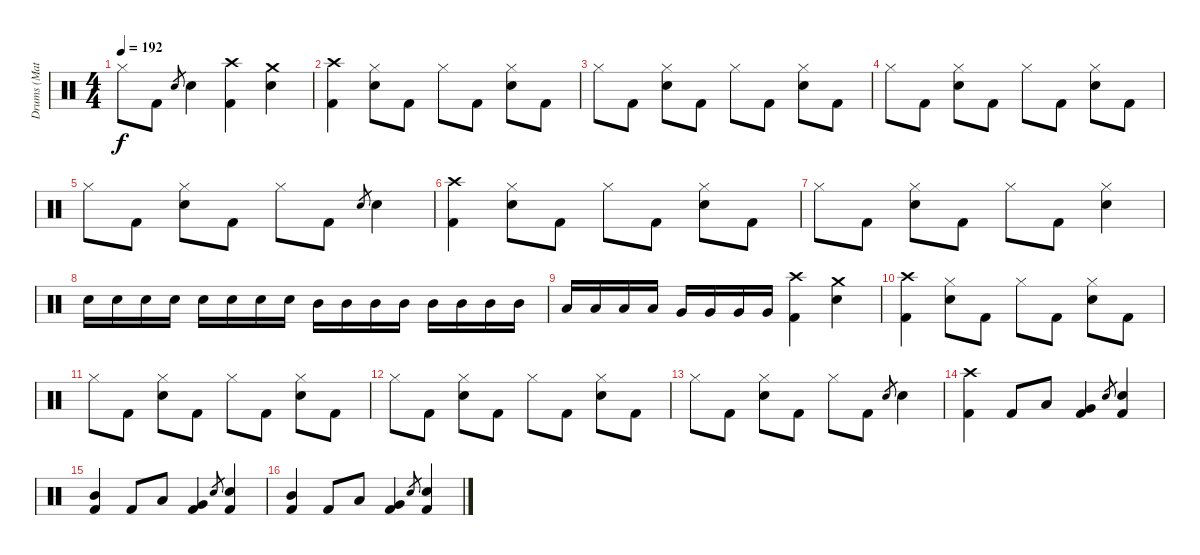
\track ("Drums (Matt)" "Drums (Mat") {instrument percussion}
\staff {score}
\articulation defaults
\ts (4 4)
\tempo 192
\clef neutral
\ks c "Hi-Hat (closed)".8{dy f} "Kick (hit) 2".8 "Snare (hit) 2".8{gr} "Snare (hit) 2".4
("Crash high (hit)" "Kick (hit) 2").4 ("Crash medium (hit)" "Snare (hit) 2").4 |
("Crash high (hit)" "Kick (hit) 2").4 ("Hi-Hat (closed)" "Snare (hit) 2").8 "Kick (hit) 2".8 "Hi-Hat (closed)".8 "Kick (hit) 2".8 ("Hi-Hat (closed)" "Snare (hit) 2").8 "Kick (hit) 2".8 |
"Hi-Hat (closed)".8 "Kick (hit) 2".8 ("Hi-Hat (closed)" "Snare (hit) 2").8 "Kick (hit) 2".8 "Hi-Hat (closed)".8 "Kick (hit) 2".8 ("Hi-Hat (closed)" "Snare (hit) 2").8 "Kick (hit) 2".8 |
"Hi-Hat (closed)".8 "Kick (hit) 2".8 ("Hi-Hat (closed)" "Snare (hit) 2").8 "Kick (hit) 2".8 "Hi-Hat (closed)".8 "Kick (hit) 2".8 ("Hi-Hat (closed)" "Snare (hit) 2").8 "Kick (hit) 2".8 |
"Hi-Hat (closed)".8 "Kick (hit) 2".8 ("Hi-Hat (closed)" "Snare (hit) 2").8 "Kick (hit) 2".8 "Hi-Hat (closed)".8 "Kick (hit) 2".8 "Snare (hit) 2".8{gr} "Snare (hit) 2".4 |
("Crash high (hit)" "Kick (hit) 2").4 ("Hi-Hat (closed)" "Snare (hit) 2").8 "Kick (hit) 2".8 "Hi-Hat (closed)".8 "Kick (hit) 2".8 ("Hi-Hat (closed)" "Snare (hit) 2").8 "Kick (hit) 2".8 |
"Hi-Hat (closed)".8 "Kick (hit) 2".8 ("Hi-Hat (closed)" "Snare (hit) 2").8 "Kick (hit) 2".8 "Hi-Hat (closed)".8 "Kick (hit) 2".8 ("Hi-Hat (closed)" "Snare (hit) 2").4 |
"Snare (hit) 2".16 "Snare (hit) 2".16 "Snare (hit) 2".16 "Snare (hit) 2".16 "Snare (hit) 2".16 "Snare (hit) 2".16 "Snare (hit) 2".16 "Snare (hit) 2".16 "Mid Tom (hit)".16 "Mid Tom (hit)".16 "Mid Tom (hit)".16 "Mid Tom (hit)".16 "Mid Tom (hit)".16 "Mid Tom (hit)".16 "Mid Tom (hit)".16 "Mid Tom (hit)".16 |
"Low Tom (hit)".16 "Low Tom (hit)".16 "Low Tom (hit)".16 "Low Tom (hit)".16 "Very Low Tom (hit)".16 "Very Low Tom (hit)".16 "Very Low Tom (hit)".16 "Very Low Tom (hit)".16 ("Crash high (hit)" "Kick (hit) 2").4 ("Crash medium (hit)" "Snare (hit) 2").4 |
("Crash high (hit)" "Kick (hit) 2").4 ("Hi-Hat (closed)" "Snare (hit) 2").8 "Kick (hit) 2".8 "Hi-Hat (closed)".8 "Kick (hit) 2".8 ("Hi-Hat (closed)" "Snare (hit) 2").8 "Kick (hit) 2".8 |
"Hi-Hat (closed)".8 "Kick (hit) 2".8 ("Hi-Hat (closed)" "Snare (hit) 2").8 "Kick (hit) 2".8 "Hi-Hat (closed)".8 "Kick (hit) 2".8 ("Hi-Hat (closed)" "Snare (hit) 2").8 "Kick (hit) 2".8 |
"Hi-Hat (closed)".8 "Kick (hit) 2".8 ("Hi-Hat (closed)" "Snare (hit) 2").8 "Kick (hit) 2".8 "Hi-Hat (closed)".8 "Kick (hit) 2".8 ("Hi-Hat (closed)" "Snare (hit) 2").8 "Kick (hit) 2".8 |
"Hi-Hat (closed)".8 "Kick (hit) 2".8 ("Hi-Hat (closed)" "Snare (hit) 2").8 "Kick (hit) 2".8 "Hi-Hat (closed)".8 "Kick (hit) 2".8 "Snare (hit) 2".8{gr} "Snare (hit) 2".4 |
("Crash high (hit)" "Kick (hit) 2").4 "Kick (hit) 2".8 "Low Tom (hit)".8 ("Very Low Tom (hit)" "Kick (hit) 2").4 "Snare (hit) 2".8{gr} ("Snare (hit) 2" "Kick (hit) 2").4 |
("Mid Tom (hit)" "Kick (hit) 2").4 "Kick (hit) 2".8 "Low Tom (hit)".8 ("Very Low Tom (hit)" "Kick (hit) 2").4 "Snare (hit) 2".8{gr} ("Snare (hit) 2" "Kick (hit) 2").4 |
("Mid Tom (hit)" "Kick (hit) 2").4 "Kick (hit) 2".8 "Low Tom (hit)".8 ("Very Low Tom (hit)" "Kick (hit) 2").4 "Snare (hit) 2".8{gr} ("Snare (hit) 2" "Kick (hit) 2").4
